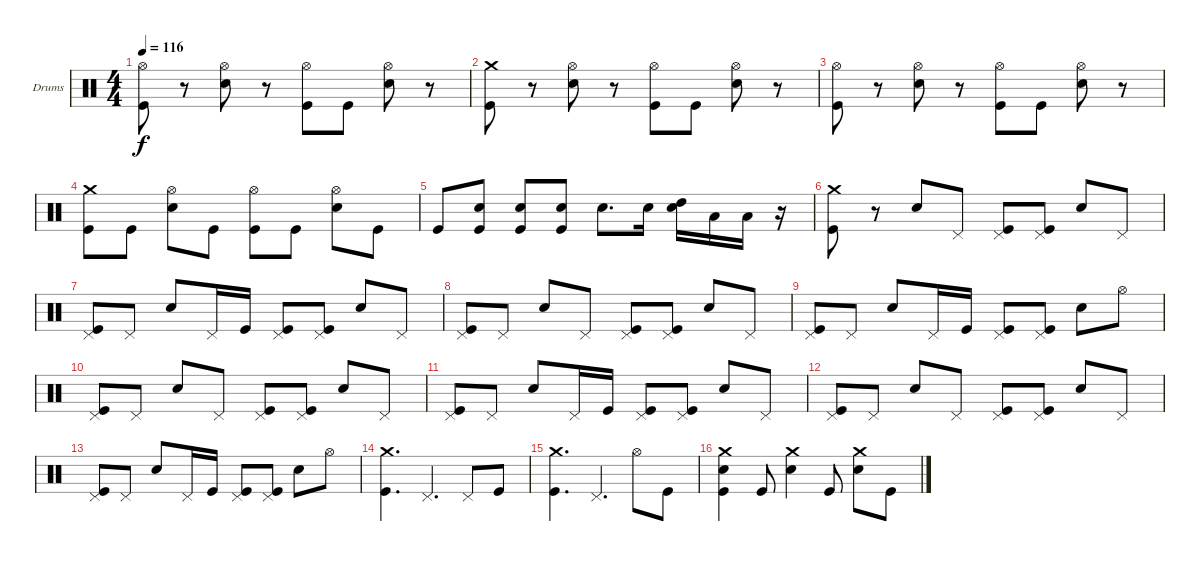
\defaultSystemsLayout 4
\bracketExtendMode nobrackets
\firstSystemTrackNameOrientation horizontal
\otherSystemsTrackNameOrientation horizontal
\track ("Dave Abbruzzese" "Drums") {solo instrument percussion}
\staff {score}
\articulation defaults
\ts (4 4)
\tempo 116
\clef neutral
\ks c
("Hi-Hat (open)" "Kick (hit)").8{dy f} r.8 ("Hi-Hat (open)" "Snare (hit) 2").8 r.8 ("Hi-Hat (open)" "Kick (hit)").8 "Kick (hit)".8 ("Hi-Hat (open)" "Snare (hit) 2").8 r.8 |
("Crash medium (hit)" "Kick (hit)").8 r.8 ("Hi-Hat (open)" "Snare (hit) 2").8 r.8 ("Hi-Hat (open)" "Kick (hit)").8 "Kick (hit)".8 ("Hi-Hat (open)" "Snare (hit) 2").8 r.8 |
("Hi-Hat (open)" "Kick (hit)").8 r.8 ("Hi-Hat (open)" "Snare (hit) 2").8 r.8 ("Hi-Hat (open)" "Kick (hit)").8 "Kick (hit)".8 ("Hi-Hat (open)" "Snare (hit) 2").8 r.8 |
("Crash medium (hit)" "Kick (hit)").8 "Kick (hit)".8 ("Hi-Hat (open)" "Snare (hit) 2").8 "Kick (hit)".8 ("Hi-Hat (open)" "Kick (hit)").8 "Kick (hit)".8 ("Hi-Hat (open)" "Snare (hit) 2").8 "Kick (hit)".8 |
"Kick (hit)".8 ("Snare (hit) 2" "Kick (hit)").8 ("Snare (hit) 2" "Kick (hit)").8 ("Snare (hit) 2" "Kick (hit)").8 "Snare (hit) 2".8{d} "Snare (hit) 2".16 ("Snare (hit) 2" "High Tom (hit)").16 "Low Tom (hit)".16 "Low Tom (hit)".16 r.16 |
("Crash medium (hit)" "Kick (hit)").8 r.8 "Snare (hit) 2".8 "Pedal Hi-Hat (hit)".8 ("Pedal Hi-Hat (hit)" "Kick (hit)").8 ("Pedal Hi-Hat (hit)" "Kick (hit)").8 "Snare (hit) 2".8 "Pedal Hi-Hat (hit)".8 |
("Pedal Hi-Hat (hit)" "Kick (hit)").8 "Pedal Hi-Hat (hit)".8 "Snare (hit) 2".8 "Pedal Hi-Hat (hit)".16 "Kick (hit)".16 ("Pedal Hi-Hat (hit)" "Kick (hit)").8 ("Pedal Hi-Hat (hit)" "Kick (hit)").8 "Snare (hit) 2".8 "Pedal Hi-Hat (hit)".8 |
("Pedal Hi-Hat (hit)" "Kick (hit)").8 "Pedal Hi-Hat (hit)".8 "Snare (hit) 2".8 "Pedal Hi-Hat (hit)".8 ("Pedal Hi-Hat (hit)" "Kick (hit)").8 ("Pedal Hi-Hat (hit)" "Kick (hit)").8 "Snare (hit) 2".8 "Pedal Hi-Hat (hit)".8 |
("Pedal Hi-Hat (hit)" "Kick (hit)").8 "Pedal Hi-Hat (hit)".8 "Snare (hit) 2".8 "Pedal Hi-Hat (hit)".16 "Kick (hit)".16 ("Pedal Hi-Hat (hit)" "Kick (hit)").8 ("Pedal Hi-Hat (hit)" "Kick (hit)").8 "Snare (hit) 2".8 "Hi-Hat (open)".8 |
("Pedal Hi-Hat (hit)" "Kick (hit)").8 "Pedal Hi-Hat (hit)".8 "Snare (hit) 2".8 "Pedal Hi-Hat (hit)".8 ("Pedal Hi-Hat (hit)" "Kick (hit)").8 ("Pedal Hi-Hat (hit)" "Kick (hit)").8 "Snare (hit) 2".8 "Pedal Hi-Hat (hit)".8 |
("Pedal Hi-Hat (hit)" "Kick (hit)").8 "Pedal Hi-Hat (hit)".8 "Snare (hit) 2".8 "Pedal Hi-Hat (hit)".16 "Kick (hit)".16 ("Pedal Hi-Hat (hit)" "Kick (hit)").8 ("Pedal Hi-Hat (hit)" "Kick (hit)").8 "Snare (hit) 2".8 "Pedal Hi-Hat (hit)".8 |
("Pedal Hi-Hat (hit)" "Kick (hit)").8 "Pedal Hi-Hat (hit)".8 "Snare (hit) 2".8 "Pedal Hi-Hat (hit)".8 ("Pedal Hi-Hat (hit)" "Kick (hit)").8 ("Pedal Hi-Hat (hit)" "Kick (hit)").8 "Snare (hit) 2".8 "Pedal Hi-Hat (hit)".8 |
("Pedal Hi-Hat (hit)" "Kick (hit)").8 "Pedal Hi-Hat (hit)".8 "Snare (hit) 2".8 "Pedal Hi-Hat (hit)".16 "Kick (hit)".16 ("Pedal Hi-Hat (hit)" "Kick (hit)").8 ("Pedal Hi-Hat (hit)" "Kick (hit)").8 "Snare (hit) 2".8 "Hi-Hat (open)".8 |
("Crash medium (hit)" "Kick (hit)").4{d} "Pedal Hi-Hat (hit)".4{d} "Pedal Hi-Hat (hit)".8 "Kick (hit)".8 |
("Crash medium (hit)" "Kick (hit)").4{d} "Pedal Hi-Hat (hit)".4{d} "Hi-Hat (open)".8 "Kick (hit)".8 |
("Crash medium (hit)" "Snare (hit) 2" "Kick (hit)").4 "Kick (hit)".8 ("Crash medium (hit)" "Snare (hit) 2").4 "Kick (hit)".8 ("Crash medium (hit)" "Snare (hit) 2").8 "Kick (hit)".8
